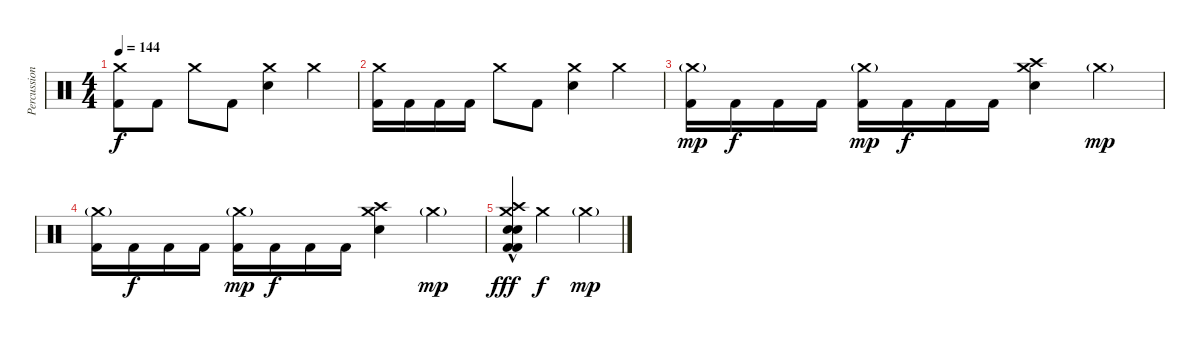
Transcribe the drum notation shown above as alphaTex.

\track ("Percussion" "Percussion") {instrument percussion}
\staff {score}
\articulation defaults
\ts (4 4)
\tempo 144
\clef neutral
\ks c
("Kick (hit) 2" "Crash medium (hit)").8{dy f} "Kick (hit) 2".8 "Crash medium (hit)".8 "Kick (hit) 2".8 ("Electric Snare (hit)" "Crash medium (hit)").4 "Crash medium (hit)".4 |
("Kick (hit) 2" "Crash medium (hit)").16 "Kick (hit) 2".16 "Kick (hit) 2".16 "Kick (hit) 2".16 "Crash medium (hit)".8 "Kick (hit) 2".8 ("Electric Snare (hit)" "Crash medium (hit)").4 "Crash medium (hit)".4 |
("Kick (hit) 2" "Crash medium (hit)"{g}).16{dy mp} "Kick (hit) 2".16{dy f} "Kick (hit) 2".16 "Kick (hit) 2".16 ("Kick (hit) 2" "Crash medium (hit)"{g}).16{dy mp} "Kick (hit) 2".16{dy f} "Kick (hit) 2".16 "Kick (hit) 2".16 ("Electric Snare (hit)" "Crash medium (hit)" "Crash high (hit)").4 "Crash medium (hit)"{g}.4{dy mp} |
("Kick (hit) 2" "Crash medium (hit)"{g}).16 "Kick (hit) 2".16{dy f} "Kick (hit) 2".16 "Kick (hit) 2".16 ("Kick (hit) 2" "Crash medium (hit)"{g}).16{dy mp} "Kick (hit) 2".16{dy f} "Kick (hit) 2".16 "Kick (hit) 2".16 ("Electric Snare (hit)" "Crash medium (hit)" "Crash high (hit)").4 "Crash medium (hit)"{g}.4{dy mp} |
("Electric Snare (hit)" "Kick (hit) 2" "Crash medium (hit)"{hac} "Crash high (hit)" "Snare (hit) 2" "Kick (hit) 2").4{dy fff} "Crash medium (hit)".2{dy f} "Crash medium (hit)"{g}.4{dy mp}
